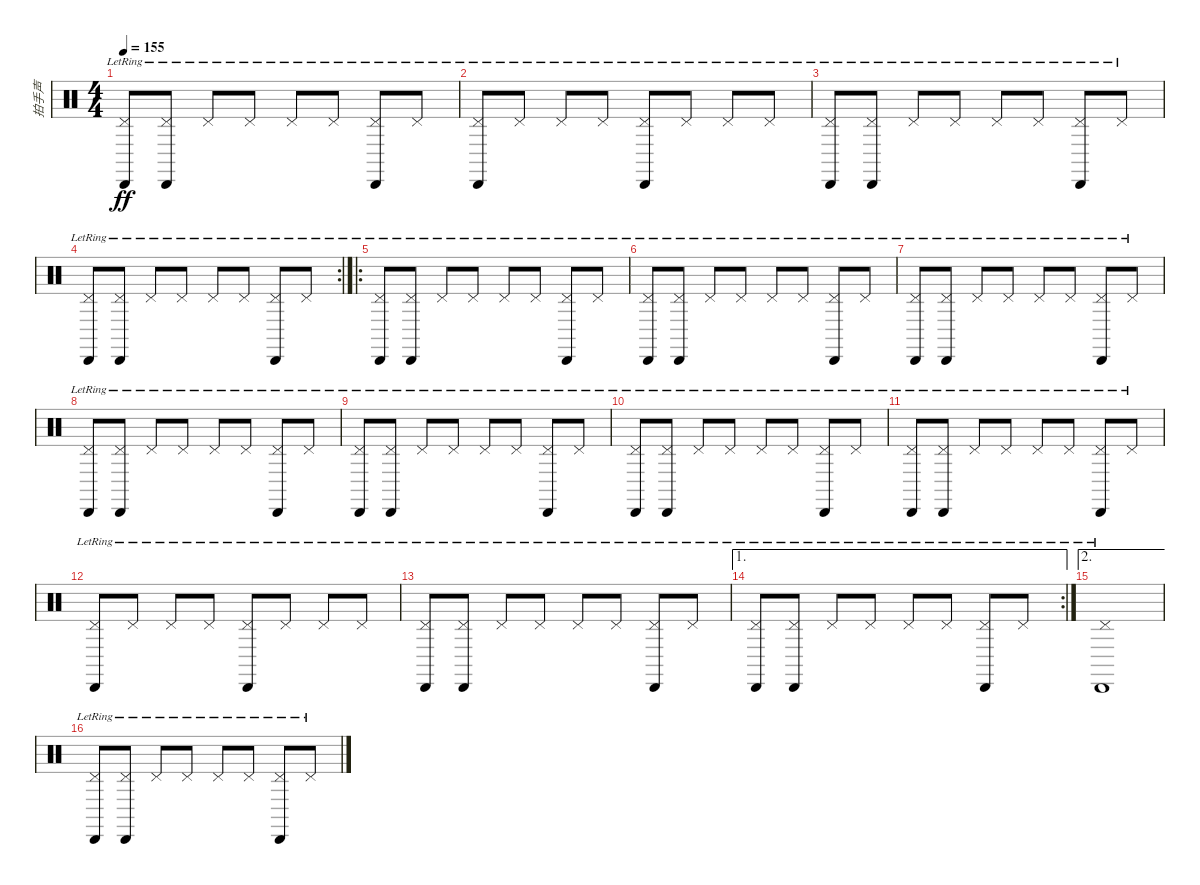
\track ("拍手声" "拍手声") {instrument percussion}
\staff {score}
\articulation defaults
\ts (4 4)
\tempo 155
\clef neutral
\ks c
("Pedal Hi-Hat (hit)"{lr} "Cabasa (hit)"{lr}).8{dy ff} ("Pedal Hi-Hat (hit)"{lr} "Cabasa (hit)"{lr}).8 "Pedal Hi-Hat (hit)"{lr}.8 "Pedal Hi-Hat (hit)"{lr}.8 "Pedal Hi-Hat (hit)"{lr}.8 "Pedal Hi-Hat (hit)"{lr}.8 ("Pedal Hi-Hat (hit)"{lr} "Cabasa (hit)"{lr}).8 "Pedal Hi-Hat (hit)"{lr}.8 |
("Pedal Hi-Hat (hit)"{lr} "Cabasa (hit)"{lr}).8 "Pedal Hi-Hat (hit)"{lr}.8 "Pedal Hi-Hat (hit)"{lr}.8 "Pedal Hi-Hat (hit)"{lr}.8 ("Pedal Hi-Hat (hit)"{lr} "Cabasa (hit)"{lr}).8 "Pedal Hi-Hat (hit)"{lr}.8 "Pedal Hi-Hat (hit)"{lr}.8 "Pedal Hi-Hat (hit)"{lr}.8 |
("Pedal Hi-Hat (hit)"{lr} "Cabasa (hit)"{lr}).8 ("Pedal Hi-Hat (hit)"{lr} "Cabasa (hit)"{lr}).8 "Pedal Hi-Hat (hit)"{lr}.8 "Pedal Hi-Hat (hit)"{lr}.8 "Pedal Hi-Hat (hit)"{lr}.8 "Pedal Hi-Hat (hit)"{lr}.8 ("Pedal Hi-Hat (hit)"{lr} "Cabasa (hit)"{lr}).8 "Pedal Hi-Hat (hit)"{lr}.8 |
\rc 2
("Pedal Hi-Hat (hit)"{lr} "Cabasa (hit)"{lr}).8 ("Pedal Hi-Hat (hit)"{lr} "Cabasa (hit)"{lr}).8 "Pedal Hi-Hat (hit)"{lr}.8 "Pedal Hi-Hat (hit)"{lr}.8 "Pedal Hi-Hat (hit)"{lr}.8 "Pedal Hi-Hat (hit)"{lr}.8 ("Pedal Hi-Hat (hit)"{lr} "Cabasa (hit)"{lr}).8 "Pedal Hi-Hat (hit)"{lr}.8 |
\ro
("Pedal Hi-Hat (hit)"{lr} "Cabasa (hit)"{lr}).8 ("Pedal Hi-Hat (hit)"{lr} "Cabasa (hit)"{lr}).8 "Pedal Hi-Hat (hit)"{lr}.8 "Pedal Hi-Hat (hit)"{lr}.8 "Pedal Hi-Hat (hit)"{lr}.8 "Pedal Hi-Hat (hit)"{lr}.8 ("Pedal Hi-Hat (hit)"{lr} "Cabasa (hit)"{lr}).8 "Pedal Hi-Hat (hit)"{lr}.8 |
("Pedal Hi-Hat (hit)"{lr} "Cabasa (hit)"{lr}).8 ("Pedal Hi-Hat (hit)"{lr} "Cabasa (hit)"{lr}).8 "Pedal Hi-Hat (hit)"{lr}.8 "Pedal Hi-Hat (hit)"{lr}.8 "Pedal Hi-Hat (hit)"{lr}.8 "Pedal Hi-Hat (hit)"{lr}.8 ("Pedal Hi-Hat (hit)"{lr} "Cabasa (hit)"{lr}).8 "Pedal Hi-Hat (hit)"{lr}.8 |
("Pedal Hi-Hat (hit)"{lr} "Cabasa (hit)"{lr}).8 ("Pedal Hi-Hat (hit)"{lr} "Cabasa (hit)"{lr}).8 "Pedal Hi-Hat (hit)"{lr}.8 "Pedal Hi-Hat (hit)"{lr}.8 "Pedal Hi-Hat (hit)"{lr}.8 "Pedal Hi-Hat (hit)"{lr}.8 ("Pedal Hi-Hat (hit)"{lr} "Cabasa (hit)"{lr}).8 "Pedal Hi-Hat (hit)"{lr}.8 |
("Pedal Hi-Hat (hit)"{lr} "Cabasa (hit)"{lr}).8 ("Pedal Hi-Hat (hit)"{lr} "Cabasa (hit)"{lr}).8 "Pedal Hi-Hat (hit)"{lr}.8 "Pedal Hi-Hat (hit)"{lr}.8 "Pedal Hi-Hat (hit)"{lr}.8 "Pedal Hi-Hat (hit)"{lr}.8 ("Pedal Hi-Hat (hit)"{lr} "Cabasa (hit)"{lr}).8 "Pedal Hi-Hat (hit)"{lr}.8 |
("Pedal Hi-Hat (hit)"{lr} "Cabasa (hit)"{lr}).8 ("Pedal Hi-Hat (hit)"{lr} "Cabasa (hit)"{lr}).8 "Pedal Hi-Hat (hit)"{lr}.8 "Pedal Hi-Hat (hit)"{lr}.8 "Pedal Hi-Hat (hit)"{lr}.8 "Pedal Hi-Hat (hit)"{lr}.8 ("Pedal Hi-Hat (hit)"{lr} "Cabasa (hit)"{lr}).8 "Pedal Hi-Hat (hit)"{lr}.8 |
("Pedal Hi-Hat (hit)"{lr} "Cabasa (hit)"{lr}).8 ("Pedal Hi-Hat (hit)"{lr} "Cabasa (hit)"{lr}).8 "Pedal Hi-Hat (hit)"{lr}.8 "Pedal Hi-Hat (hit)"{lr}.8 "Pedal Hi-Hat (hit)"{lr}.8 "Pedal Hi-Hat (hit)"{lr}.8 ("Pedal Hi-Hat (hit)"{lr} "Cabasa (hit)"{lr}).8 "Pedal Hi-Hat (hit)"{lr}.8 |
("Pedal Hi-Hat (hit)"{lr} "Cabasa (hit)"{lr}).8 ("Pedal Hi-Hat (hit)"{lr} "Cabasa (hit)"{lr}).8 "Pedal Hi-Hat (hit)"{lr}.8 "Pedal Hi-Hat (hit)"{lr}.8 "Pedal Hi-Hat (hit)"{lr}.8 "Pedal Hi-Hat (hit)"{lr}.8 ("Pedal Hi-Hat (hit)"{lr} "Cabasa (hit)"{lr}).8 "Pedal Hi-Hat (hit)"{lr}.8 |
("Pedal Hi-Hat (hit)"{lr} "Cabasa (hit)"{lr}).8 "Pedal Hi-Hat (hit)"{lr}.8 "Pedal Hi-Hat (hit)"{lr}.8 "Pedal Hi-Hat (hit)"{lr}.8 ("Pedal Hi-Hat (hit)"{lr} "Cabasa (hit)"{lr}).8 "Pedal Hi-Hat (hit)"{lr}.8 "Pedal Hi-Hat (hit)"{lr}.8 "Pedal Hi-Hat (hit)"{lr}.8 |
("Pedal Hi-Hat (hit)"{lr} "Cabasa (hit)"{lr}).8 ("Pedal Hi-Hat (hit)"{lr} "Cabasa (hit)"{lr}).8 "Pedal Hi-Hat (hit)"{lr}.8 "Pedal Hi-Hat (hit)"{lr}.8 "Pedal Hi-Hat (hit)"{lr}.8 "Pedal Hi-Hat (hit)"{lr}.8 ("Pedal Hi-Hat (hit)"{lr} "Cabasa (hit)"{lr}).8 "Pedal Hi-Hat (hit)"{lr}.8 |
\ae 1
\rc 2
("Pedal Hi-Hat (hit)"{lr} "Cabasa (hit)"{lr}).8 ("Pedal Hi-Hat (hit)"{lr} "Cabasa (hit)"{lr}).8 "Pedal Hi-Hat (hit)"{lr}.8 "Pedal Hi-Hat (hit)"{lr}.8 "Pedal Hi-Hat (hit)"{lr}.8 "Pedal Hi-Hat (hit)"{lr}.8 ("Pedal Hi-Hat (hit)"{lr} "Cabasa (hit)"{lr}).8 "Pedal Hi-Hat (hit)"{lr}.8 |
\ae 2
("Pedal Hi-Hat (hit)"{lr} "Cabasa (hit)"{lr}).1 |
("Pedal Hi-Hat (hit)"{lr} "Cabasa (hit)"{lr}).8 ("Pedal Hi-Hat (hit)"{lr} "Cabasa (hit)"{lr}).8 "Pedal Hi-Hat (hit)"{lr}.8 "Pedal Hi-Hat (hit)"{lr}.8 "Pedal Hi-Hat (hit)"{lr}.8 "Pedal Hi-Hat (hit)"{lr}.8 ("Pedal Hi-Hat (hit)"{lr} "Cabasa (hit)"{lr}).8 "Pedal Hi-Hat (hit)"{lr}.8
